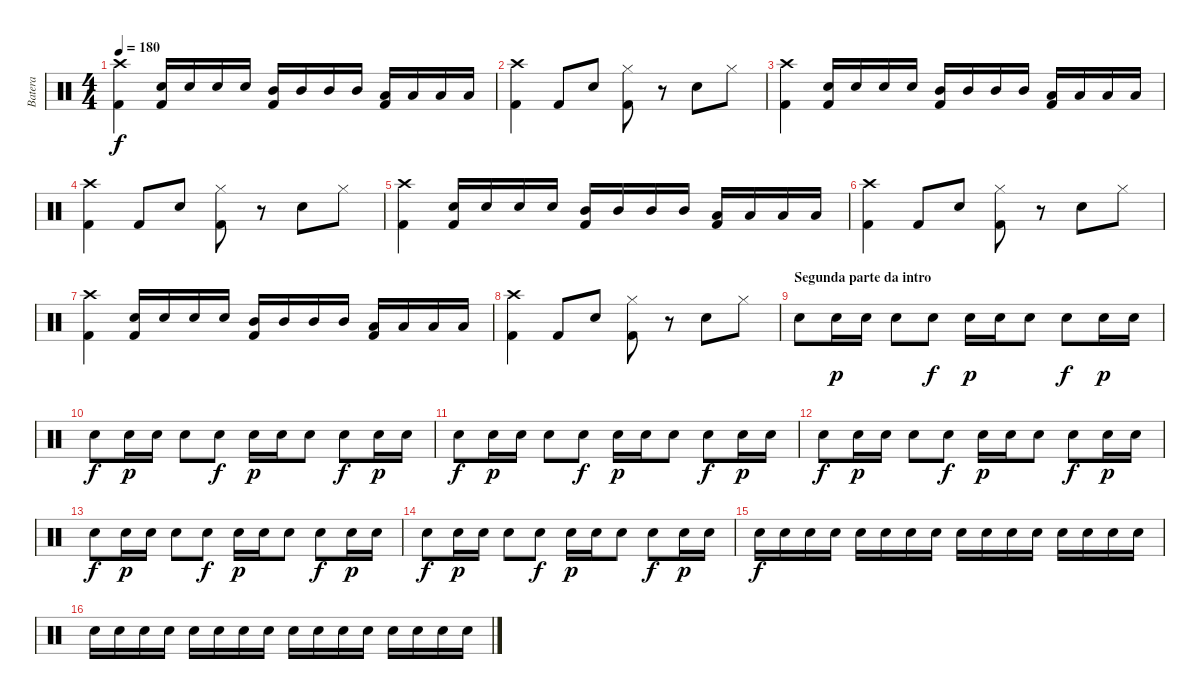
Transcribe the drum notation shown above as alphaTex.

\track ("Batera" "Batera") {instrument percussion}
\staff {score}
\articulation defaults
\ts (4 4)
\tempo 180
\clef neutral
\ks c
("Crash high (hit)" "Kick (hit) 2").4{dy f} ("Snare (hit) 2" "Kick (hit) 2").16 "Snare (hit) 2".16 "Snare (hit) 2".16 "Snare (hit) 2".16 ("Mid Tom (hit)" "Kick (hit) 2").16 "Mid Tom (hit)".16 "Mid Tom (hit)".16 "Mid Tom (hit)".16 ("Low Tom (hit)" "Kick (hit) 2").16 "Low Tom (hit)".16 "Low Tom (hit)".16 "Low Tom (hit)".16 |
("Crash high (hit)" "Kick (hit) 2").4 "Kick (hit) 2".8 "Snare (hit) 2".8 ("Hi-Hat (closed)" "Kick (hit) 2").8 r.8 "Snare (hit) 2".8 "Hi-Hat (closed)".8 |
("Crash high (hit)" "Kick (hit) 2").4 ("Snare (hit) 2" "Kick (hit) 2").16 "Snare (hit) 2".16 "Snare (hit) 2".16 "Snare (hit) 2".16 ("Mid Tom (hit)" "Kick (hit) 2").16 "Mid Tom (hit)".16 "Mid Tom (hit)".16 "Mid Tom (hit)".16 ("Low Tom (hit)" "Kick (hit) 2").16 "Low Tom (hit)".16 "Low Tom (hit)".16 "Low Tom (hit)".16 |
("Crash high (hit)" "Kick (hit) 2").4 "Kick (hit) 2".8 "Snare (hit) 2".8 ("Hi-Hat (closed)" "Kick (hit) 2").8 r.8 "Snare (hit) 2".8 "Hi-Hat (closed)".8 |
("Crash high (hit)" "Kick (hit) 2").4 ("Snare (hit) 2" "Kick (hit) 2").16 "Snare (hit) 2".16 "Snare (hit) 2".16 "Snare (hit) 2".16 ("Mid Tom (hit)" "Kick (hit) 2").16 "Mid Tom (hit)".16 "Mid Tom (hit)".16 "Mid Tom (hit)".16 ("Low Tom (hit)" "Kick (hit) 2").16 "Low Tom (hit)".16 "Low Tom (hit)".16 "Low Tom (hit)".16 |
("Crash high (hit)" "Kick (hit) 2").4 "Kick (hit) 2".8 "Snare (hit) 2".8 ("Hi-Hat (closed)" "Kick (hit) 2").8 r.8 "Snare (hit) 2".8 "Hi-Hat (closed)".8 |
("Crash high (hit)" "Kick (hit) 2").4 ("Snare (hit) 2" "Kick (hit) 2").16 "Snare (hit) 2".16 "Snare (hit) 2".16 "Snare (hit) 2".16 ("Mid Tom (hit)" "Kick (hit) 2").16 "Mid Tom (hit)".16 "Mid Tom (hit)".16 "Mid Tom (hit)".16 ("Low Tom (hit)" "Kick (hit) 2").16 "Low Tom (hit)".16 "Low Tom (hit)".16 "Low Tom (hit)".16 |
("Crash high (hit)" "Kick (hit) 2").4 "Kick (hit) 2".8 "Snare (hit) 2".8 ("Hi-Hat (closed)" "Kick (hit) 2").8 r.8 "Snare (hit) 2".8 "Hi-Hat (closed)".8 |
\section ("" "Segunda parte da intro")
"Snare (hit) 2".8 "Snare (hit) 2".16{dy p} "Snare (hit) 2".16 "Snare (hit) 2".8 "Snare (hit) 2".8{dy f} "Snare (hit) 2".16{dy p} "Snare (hit) 2".16 "Snare (hit) 2".8 "Snare (hit) 2".8{dy f} "Snare (hit) 2".16{dy p} "Snare (hit) 2".16 |
"Snare (hit) 2".8{dy f} "Snare (hit) 2".16{dy p} "Snare (hit) 2".16 "Snare (hit) 2".8 "Snare (hit) 2".8{dy f} "Snare (hit) 2".16{dy p} "Snare (hit) 2".16 "Snare (hit) 2".8 "Snare (hit) 2".8{dy f} "Snare (hit) 2".16{dy p} "Snare (hit) 2".16 |
"Snare (hit) 2".8{dy f} "Snare (hit) 2".16{dy p} "Snare (hit) 2".16 "Snare (hit) 2".8 "Snare (hit) 2".8{dy f} "Snare (hit) 2".16{dy p} "Snare (hit) 2".16 "Snare (hit) 2".8 "Snare (hit) 2".8{dy f} "Snare (hit) 2".16{dy p} "Snare (hit) 2".16 |
"Snare (hit) 2".8{dy f} "Snare (hit) 2".16{dy p} "Snare (hit) 2".16 "Snare (hit) 2".8 "Snare (hit) 2".8{dy f} "Snare (hit) 2".16{dy p} "Snare (hit) 2".16 "Snare (hit) 2".8 "Snare (hit) 2".8{dy f} "Snare (hit) 2".16{dy p} "Snare (hit) 2".16 |
"Snare (hit) 2".8{dy f} "Snare (hit) 2".16{dy p} "Snare (hit) 2".16 "Snare (hit) 2".8 "Snare (hit) 2".8{dy f} "Snare (hit) 2".16{dy p} "Snare (hit) 2".16 "Snare (hit) 2".8 "Snare (hit) 2".8{dy f} "Snare (hit) 2".16{dy p} "Snare (hit) 2".16 |
"Snare (hit) 2".8{dy f} "Snare (hit) 2".16{dy p} "Snare (hit) 2".16 "Snare (hit) 2".8 "Snare (hit) 2".8{dy f} "Snare (hit) 2".16{dy p} "Snare (hit) 2".16 "Snare (hit) 2".8 "Snare (hit) 2".8{dy f} "Snare (hit) 2".16{dy p} "Snare (hit) 2".16 |
"Snare (hit) 2".16{dy f} "Snare (hit) 2".16 "Snare (hit) 2".16 "Snare (hit) 2".16 "Snare (hit) 2".16 "Snare (hit) 2".16 "Snare (hit) 2".16 "Snare (hit) 2".16 "Snare (hit) 2".16 "Snare (hit) 2".16 "Snare (hit) 2".16 "Snare (hit) 2".16 "Snare (hit) 2".16 "Snare (hit) 2".16 "Snare (hit) 2".16 "Snare (hit) 2".16 |
"Snare (hit) 2".16 "Snare (hit) 2".16 "Snare (hit) 2".16 "Snare (hit) 2".16 "Snare (hit) 2".16 "Snare (hit) 2".16 "Snare (hit) 2".16 "Snare (hit) 2".16 "Snare (hit) 2".16 "Snare (hit) 2".16 "Snare (hit) 2".16 "Snare (hit) 2".16 "Snare (hit) 2".16 "Snare (hit) 2".16 "Snare (hit) 2".16 "Snare (hit) 2".16
